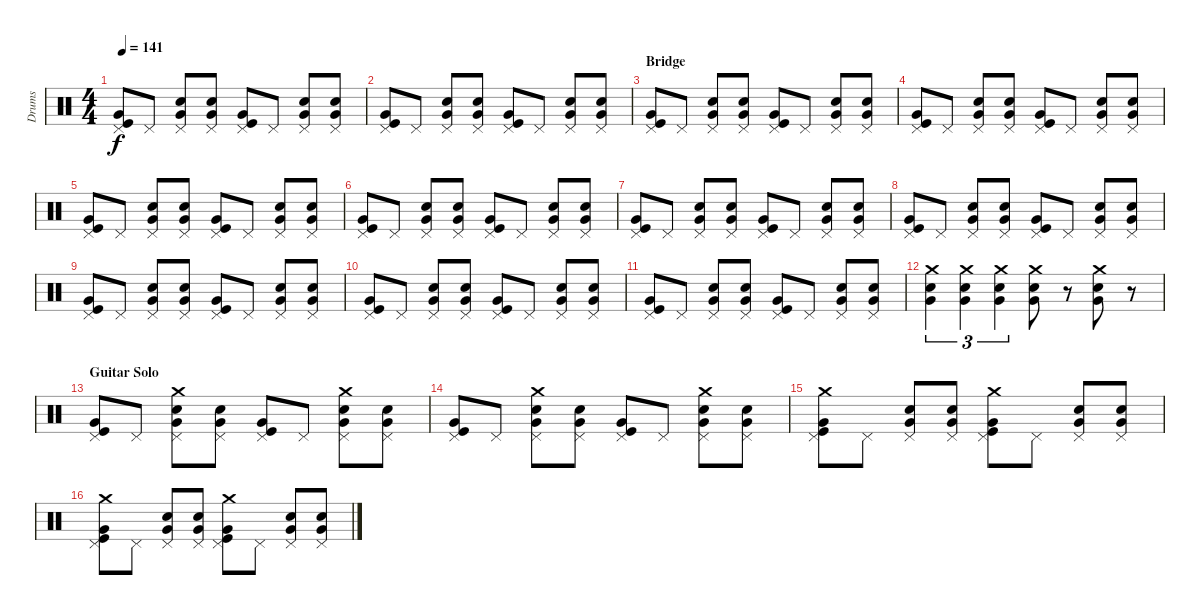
\track ("Drums" "Drums") {instrument percussion}
\staff {score}
\articulation defaults
\ts (4 4)
\tempo 141
\clef neutral
\ks c
("Pedal Hi-Hat (hit)" "Very Low Tom (hit)" "Kick (hit)").8{dy f} "Pedal Hi-Hat (hit)".8 ("Pedal Hi-Hat (hit)" "Very Low Tom (hit)" "Snare (hit) 2").8 ("Pedal Hi-Hat (hit)" "Very Low Tom (hit)" "Snare (hit) 2").8 ("Pedal Hi-Hat (hit)" "Very Low Tom (hit)" "Kick (hit)").8 "Pedal Hi-Hat (hit)".8 ("Pedal Hi-Hat (hit)" "Very Low Tom (hit)" "Snare (hit) 2").8 ("Pedal Hi-Hat (hit)" "Very Low Tom (hit)" "Snare (hit) 2").8 |
("Pedal Hi-Hat (hit)" "Very Low Tom (hit)" "Kick (hit)").8 "Pedal Hi-Hat (hit)".8 ("Pedal Hi-Hat (hit)" "Very Low Tom (hit)" "Snare (hit) 2").8 ("Pedal Hi-Hat (hit)" "Very Low Tom (hit)" "Snare (hit) 2").8 ("Pedal Hi-Hat (hit)" "Very Low Tom (hit)" "Kick (hit)").8 "Pedal Hi-Hat (hit)".8 ("Pedal Hi-Hat (hit)" "Very Low Tom (hit)" "Snare (hit) 2").8 ("Pedal Hi-Hat (hit)" "Very Low Tom (hit)" "Snare (hit) 2").8 |
\section ("" "Bridge")
("Pedal Hi-Hat (hit)" "Very Low Tom (hit)" "Kick (hit)").8 "Pedal Hi-Hat (hit)".8 ("Pedal Hi-Hat (hit)" "Very Low Tom (hit)" "Snare (hit) 2").8 ("Pedal Hi-Hat (hit)" "Very Low Tom (hit)" "Snare (hit) 2").8 ("Pedal Hi-Hat (hit)" "Very Low Tom (hit)" "Kick (hit)").8 "Pedal Hi-Hat (hit)".8 ("Pedal Hi-Hat (hit)" "Very Low Tom (hit)" "Snare (hit) 2").8 ("Pedal Hi-Hat (hit)" "Very Low Tom (hit)" "Snare (hit) 2").8 |
("Pedal Hi-Hat (hit)" "Very Low Tom (hit)" "Kick (hit)").8 "Pedal Hi-Hat (hit)".8 ("Pedal Hi-Hat (hit)" "Very Low Tom (hit)" "Snare (hit) 2").8 ("Pedal Hi-Hat (hit)" "Very Low Tom (hit)" "Snare (hit) 2").8 ("Pedal Hi-Hat (hit)" "Very Low Tom (hit)" "Kick (hit)").8 "Pedal Hi-Hat (hit)".8 ("Pedal Hi-Hat (hit)" "Very Low Tom (hit)" "Snare (hit) 2").8 ("Pedal Hi-Hat (hit)" "Very Low Tom (hit)" "Snare (hit) 2").8 |
("Pedal Hi-Hat (hit)" "Very Low Tom (hit)" "Kick (hit)").8 "Pedal Hi-Hat (hit)".8 ("Pedal Hi-Hat (hit)" "Very Low Tom (hit)" "Snare (hit) 2").8 ("Pedal Hi-Hat (hit)" "Very Low Tom (hit)" "Snare (hit) 2").8 ("Pedal Hi-Hat (hit)" "Very Low Tom (hit)" "Kick (hit)").8 "Pedal Hi-Hat (hit)".8 ("Pedal Hi-Hat (hit)" "Very Low Tom (hit)" "Snare (hit) 2").8 ("Pedal Hi-Hat (hit)" "Very Low Tom (hit)" "Snare (hit) 2").8 |
("Pedal Hi-Hat (hit)" "Very Low Tom (hit)" "Kick (hit)").8 "Pedal Hi-Hat (hit)".8 ("Pedal Hi-Hat (hit)" "Very Low Tom (hit)" "Snare (hit) 2").8 ("Pedal Hi-Hat (hit)" "Very Low Tom (hit)" "Snare (hit) 2").8 ("Pedal Hi-Hat (hit)" "Very Low Tom (hit)" "Kick (hit)").8 "Pedal Hi-Hat (hit)".8 ("Pedal Hi-Hat (hit)" "Very Low Tom (hit)" "Snare (hit) 2").8 ("Pedal Hi-Hat (hit)" "Very Low Tom (hit)" "Snare (hit) 2").8 |
("Pedal Hi-Hat (hit)" "Very Low Tom (hit)" "Kick (hit)").8 "Pedal Hi-Hat (hit)".8 ("Pedal Hi-Hat (hit)" "Very Low Tom (hit)" "Snare (hit) 2").8 ("Pedal Hi-Hat (hit)" "Very Low Tom (hit)" "Snare (hit) 2").8 ("Pedal Hi-Hat (hit)" "Very Low Tom (hit)" "Kick (hit)").8 "Pedal Hi-Hat (hit)".8 ("Pedal Hi-Hat (hit)" "Very Low Tom (hit)" "Snare (hit) 2").8 ("Pedal Hi-Hat (hit)" "Very Low Tom (hit)" "Snare (hit) 2").8 |
("Pedal Hi-Hat (hit)" "Very Low Tom (hit)" "Kick (hit)").8 "Pedal Hi-Hat (hit)".8 ("Pedal Hi-Hat (hit)" "Very Low Tom (hit)" "Snare (hit) 2").8 ("Pedal Hi-Hat (hit)" "Very Low Tom (hit)" "Snare (hit) 2").8 ("Pedal Hi-Hat (hit)" "Very Low Tom (hit)" "Kick (hit)").8 "Pedal Hi-Hat (hit)".8 ("Pedal Hi-Hat (hit)" "Very Low Tom (hit)" "Snare (hit) 2").8 ("Pedal Hi-Hat (hit)" "Very Low Tom (hit)" "Snare (hit) 2").8 |
("Pedal Hi-Hat (hit)" "Very Low Tom (hit)" "Kick (hit)").8 "Pedal Hi-Hat (hit)".8 ("Pedal Hi-Hat (hit)" "Very Low Tom (hit)" "Snare (hit) 2").8 ("Pedal Hi-Hat (hit)" "Very Low Tom (hit)" "Snare (hit) 2").8 ("Pedal Hi-Hat (hit)" "Very Low Tom (hit)" "Kick (hit)").8 "Pedal Hi-Hat (hit)".8 ("Pedal Hi-Hat (hit)" "Very Low Tom (hit)" "Snare (hit) 2").8 ("Pedal Hi-Hat (hit)" "Very Low Tom (hit)" "Snare (hit) 2").8 |
("Pedal Hi-Hat (hit)" "Very Low Tom (hit)" "Kick (hit)").8 "Pedal Hi-Hat (hit)".8 ("Pedal Hi-Hat (hit)" "Very Low Tom (hit)" "Snare (hit) 2").8 ("Pedal Hi-Hat (hit)" "Very Low Tom (hit)" "Snare (hit) 2").8 ("Pedal Hi-Hat (hit)" "Very Low Tom (hit)" "Kick (hit)").8 "Pedal Hi-Hat (hit)".8 ("Pedal Hi-Hat (hit)" "Very Low Tom (hit)" "Snare (hit) 2").8 ("Pedal Hi-Hat (hit)" "Very Low Tom (hit)" "Snare (hit) 2").8 |
("Pedal Hi-Hat (hit)" "Very Low Tom (hit)" "Kick (hit)").8 "Pedal Hi-Hat (hit)".8 ("Pedal Hi-Hat (hit)" "Very Low Tom (hit)" "Snare (hit) 2").8 ("Pedal Hi-Hat (hit)" "Very Low Tom (hit)" "Snare (hit) 2").8 ("Pedal Hi-Hat (hit)" "Very Low Tom (hit)" "Kick (hit)").8 "Pedal Hi-Hat (hit)".8 ("Pedal Hi-Hat (hit)" "Very Low Tom (hit)" "Snare (hit) 2").8 ("Pedal Hi-Hat (hit)" "Very Low Tom (hit)" "Snare (hit) 2").8 |
("Crash medium (hit)" "Snare (hit) 2" "Very Low Tom (hit)").4{tu (3 2)} ("Crash medium (hit)" "Snare (hit) 2" "Very Low Tom (hit)").4{tu (3 2)} ("Crash medium (hit)" "Snare (hit) 2" "Very Low Tom (hit)").4{tu (3 2)} ("Crash medium (hit)" "Snare (hit) 2" "Very Low Tom (hit)").8 r.8 ("Crash medium (hit)" "Snare (hit) 2" "Very Low Tom (hit)").8 r.8 |
\section ("" "Guitar Solo")
("Pedal Hi-Hat (hit)" "Very Low Tom (hit)" "Kick (hit)").8 "Pedal Hi-Hat (hit)".8 ("Pedal Hi-Hat (hit)" "Crash medium (hit)" "Very Low Tom (hit)" "Snare (hit) 2").8 ("Pedal Hi-Hat (hit)" "Very Low Tom (hit)" "Snare (hit) 2").8 ("Pedal Hi-Hat (hit)" "Very Low Tom (hit)" "Kick (hit)").8 "Pedal Hi-Hat (hit)".8 ("Pedal Hi-Hat (hit)" "Crash medium (hit)" "Very Low Tom (hit)" "Snare (hit) 2").8 ("Pedal Hi-Hat (hit)" "Very Low Tom (hit)" "Snare (hit) 2").8 |
("Pedal Hi-Hat (hit)" "Very Low Tom (hit)" "Kick (hit)").8 "Pedal Hi-Hat (hit)".8 ("Pedal Hi-Hat (hit)" "Crash medium (hit)" "Very Low Tom (hit)" "Snare (hit) 2").8 ("Pedal Hi-Hat (hit)" "Very Low Tom (hit)" "Snare (hit) 2").8 ("Pedal Hi-Hat (hit)" "Very Low Tom (hit)" "Kick (hit)").8 "Pedal Hi-Hat (hit)".8 ("Pedal Hi-Hat (hit)" "Crash medium (hit)" "Very Low Tom (hit)" "Snare (hit) 2").8 ("Pedal Hi-Hat (hit)" "Very Low Tom (hit)" "Snare (hit) 2").8 |
("Pedal Hi-Hat (hit)" "Crash medium (hit)" "Very Low Tom (hit)" "Kick (hit)").8 "Pedal Hi-Hat (hit)".8 ("Pedal Hi-Hat (hit)" "Very Low Tom (hit)" "Snare (hit) 2").8 ("Pedal Hi-Hat (hit)" "Very Low Tom (hit)" "Snare (hit) 2").8 ("Pedal Hi-Hat (hit)" "Crash medium (hit)" "Very Low Tom (hit)" "Kick (hit)").8 "Pedal Hi-Hat (hit)".8 ("Pedal Hi-Hat (hit)" "Very Low Tom (hit)" "Snare (hit) 2").8 ("Pedal Hi-Hat (hit)" "Very Low Tom (hit)" "Snare (hit) 2").8 |
("Pedal Hi-Hat (hit)" "Crash medium (hit)" "Very Low Tom (hit)" "Kick (hit)").8 "Pedal Hi-Hat (hit)".8 ("Pedal Hi-Hat (hit)" "Very Low Tom (hit)" "Snare (hit) 2").8 ("Pedal Hi-Hat (hit)" "Very Low Tom (hit)" "Snare (hit) 2").8 ("Pedal Hi-Hat (hit)" "Crash medium (hit)" "Very Low Tom (hit)" "Kick (hit)").8 "Pedal Hi-Hat (hit)".8 ("Pedal Hi-Hat (hit)" "Very Low Tom (hit)" "Snare (hit) 2").8 ("Pedal Hi-Hat (hit)" "Very Low Tom (hit)" "Snare (hit) 2").8
